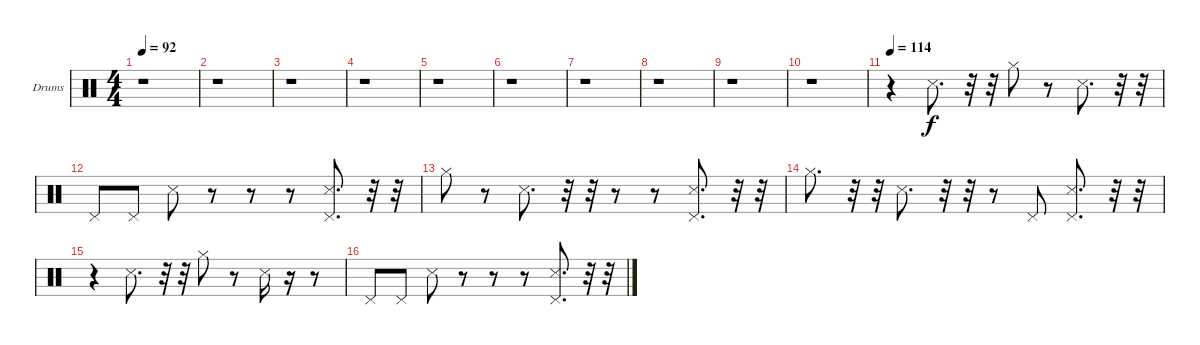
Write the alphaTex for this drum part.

\bracketExtendMode groupsimilarinstruments
\firstSystemTrackNameOrientation horizontal
\otherSystemsTrackNameOrientation horizontal
\track ("Drumkit" "Drums") {instrument percussion}
\staff {score}
\articulation defaults
\ts (4 4)
\tempo 92
\clef neutral
\ks c
r.1{dy f} |
r.1 |
r.1 |
r.1 |
r.1 |
r.1 |
r.1 |
r.1 |
r.1 |
r.1 |
\tempo 114
r.4 "Snare (side stick) 3".8{d} r.32 r.32 "Hi-Hat (closed)".8 r.8 "Snare (side stick) 3".8{d} r.32 r.32 |
"Pedal Hi-Hat (hit)".8 "Pedal Hi-Hat (hit)".8 "Snare (side stick) 3".8 r.8 r.8 r.8 ("Snare (side stick) 3" "Pedal Hi-Hat (hit)").8{d} r.32 r.32 |
"Hi-Hat (closed)".8 r.8 "Snare (side stick) 3".8{d} r.32 r.32 r.8 r.8 ("Snare (side stick) 3" "Pedal Hi-Hat (hit)").8{d} r.32 r.32 |
"Hi-Hat (closed)".8{d} r.32 r.32 "Snare (side stick) 3".8{d} r.32 r.32 r.8 "Pedal Hi-Hat (hit)".8 ("Snare (side stick) 3" "Pedal Hi-Hat (hit)").8{d} r.32 r.32 |
r.4 "Snare (side stick) 3".8{d} r.32 r.32 "Hi-Hat (closed)".8 r.8 "Snare (side stick) 3".16 r.16 r.8 |
"Pedal Hi-Hat (hit)".8 "Pedal Hi-Hat (hit)".8 "Snare (side stick) 3".8 r.8 r.8 r.8 ("Snare (side stick) 3" "Pedal Hi-Hat (hit)").8{d} r.32 r.32
